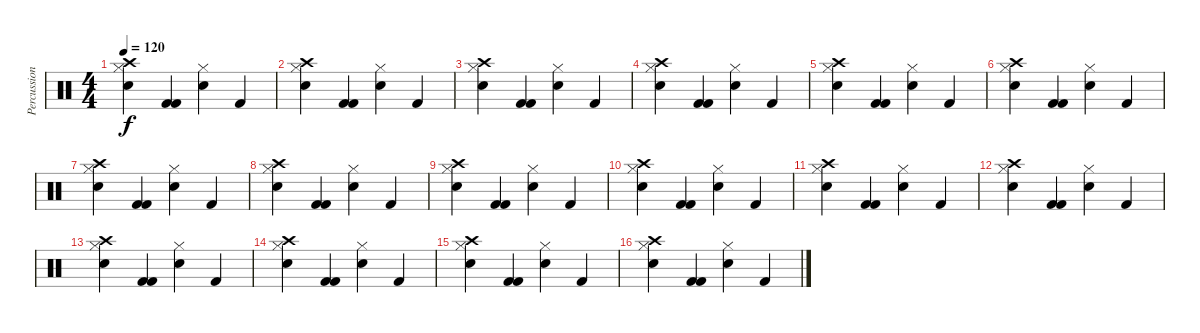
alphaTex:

\track ("Percussions" "Percussion") {instrument percussion}
\staff {score}
\articulation defaults
\ts (4 4)
\tempo 120
\clef neutral
\ks c
("Crash high (hit)" "Electric Snare (hit)" "Hi-Hat (closed)").4{dy f} ("Kick (hit) 2" "Kick (hit) 2").4 ("Electric Snare (hit)" "Hi-Hat (closed)").4 "Kick (hit) 2".4 |
("Crash high (hit)" "Electric Snare (hit)" "Hi-Hat (closed)").4 ("Kick (hit) 2" "Kick (hit) 2").4 ("Electric Snare (hit)" "Hi-Hat (closed)").4 "Kick (hit) 2".4 |
("Crash high (hit)" "Electric Snare (hit)" "Hi-Hat (closed)").4 ("Kick (hit) 2" "Kick (hit) 2").4 ("Electric Snare (hit)" "Hi-Hat (closed)").4 "Kick (hit) 2".4 |
("Crash high (hit)" "Electric Snare (hit)" "Hi-Hat (closed)").4 ("Kick (hit) 2" "Kick (hit) 2").4 ("Electric Snare (hit)" "Hi-Hat (closed)").4 "Kick (hit) 2".4 |
("Crash high (hit)" "Electric Snare (hit)" "Hi-Hat (closed)").4 ("Kick (hit) 2" "Kick (hit) 2").4 ("Electric Snare (hit)" "Hi-Hat (closed)").4 "Kick (hit) 2".4 |
("Crash high (hit)" "Electric Snare (hit)" "Hi-Hat (closed)").4 ("Kick (hit) 2" "Kick (hit) 2").4 ("Electric Snare (hit)" "Hi-Hat (closed)").4 "Kick (hit) 2".4 |
("Crash high (hit)" "Electric Snare (hit)" "Hi-Hat (closed)").4 ("Kick (hit) 2" "Kick (hit) 2").4 ("Electric Snare (hit)" "Hi-Hat (closed)").4 "Kick (hit) 2".4 |
("Crash high (hit)" "Electric Snare (hit)" "Hi-Hat (closed)").4 ("Kick (hit) 2" "Kick (hit) 2").4 ("Electric Snare (hit)" "Hi-Hat (closed)").4 "Kick (hit) 2".4 |
("Crash high (hit)" "Electric Snare (hit)" "Hi-Hat (closed)").4 ("Kick (hit) 2" "Kick (hit) 2").4 ("Electric Snare (hit)" "Hi-Hat (closed)").4 "Kick (hit) 2".4 |
("Crash high (hit)" "Electric Snare (hit)" "Hi-Hat (closed)").4 ("Kick (hit) 2" "Kick (hit) 2").4 ("Electric Snare (hit)" "Hi-Hat (closed)").4 "Kick (hit) 2".4 |
("Crash high (hit)" "Electric Snare (hit)" "Hi-Hat (closed)").4 ("Kick (hit) 2" "Kick (hit) 2").4 ("Electric Snare (hit)" "Hi-Hat (closed)").4 "Kick (hit) 2".4 |
("Crash high (hit)" "Electric Snare (hit)" "Hi-Hat (closed)").4 ("Kick (hit) 2" "Kick (hit) 2").4 ("Electric Snare (hit)" "Hi-Hat (closed)").4 "Kick (hit) 2".4 |
("Crash high (hit)" "Electric Snare (hit)" "Hi-Hat (closed)").4 ("Kick (hit) 2" "Kick (hit) 2").4 ("Electric Snare (hit)" "Hi-Hat (closed)").4 "Kick (hit) 2".4 |
("Crash high (hit)" "Electric Snare (hit)" "Hi-Hat (closed)").4 ("Kick (hit) 2" "Kick (hit) 2").4 ("Electric Snare (hit)" "Hi-Hat (closed)").4 "Kick (hit) 2".4 |
("Crash high (hit)" "Electric Snare (hit)" "Hi-Hat (closed)").4 ("Kick (hit) 2" "Kick (hit) 2").4 ("Electric Snare (hit)" "Hi-Hat (closed)").4 "Kick (hit) 2".4 |
("Crash high (hit)" "Electric Snare (hit)" "Hi-Hat (closed)").4 ("Kick (hit) 2" "Kick (hit) 2").4 ("Electric Snare (hit)" "Hi-Hat (closed)").4 "Kick (hit) 2".4
